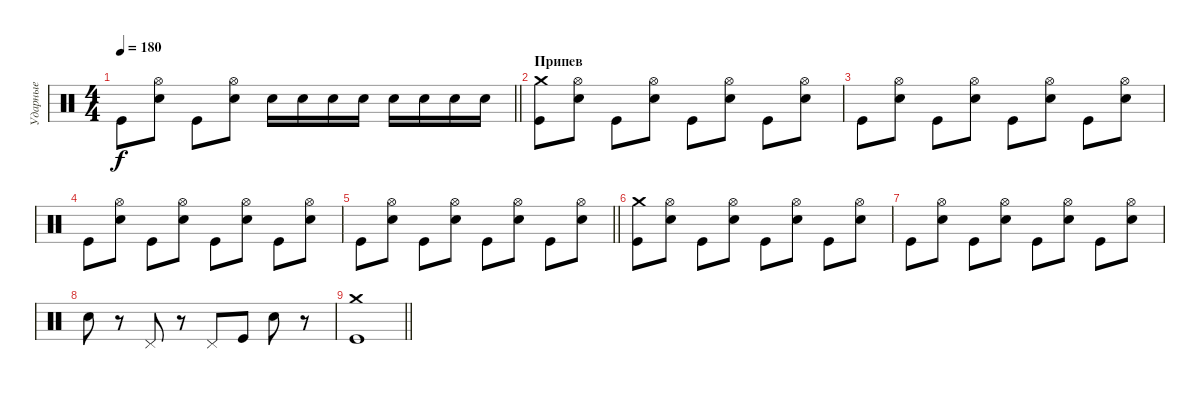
\track ("Ударные" "Ударные") {instrument percussion}
\staff {score}
\articulation defaults
\ts (4 4)
\tempo 180
\clef neutral
\barLineRight lightlight
\ks c "Kick (hit)".8{dy f}
("Hi-Hat (open)" "Electric Snare (hit)").8 "Kick (hit)".8 ("Hi-Hat (open)" "Electric Snare (hit)").8 "Electric Snare (hit)".16 "Electric Snare (hit)".16 "Electric Snare (hit)".16 "Electric Snare (hit)".16 "Electric Snare (hit)".16 "Electric Snare (hit)".16 "Electric Snare (hit)".16 "Electric Snare (hit)".16 |
\section ("" "Припев")
("Crash medium (hit)" "Kick (hit)").8 ("Hi-Hat (open)" "Electric Snare (hit)").8 "Kick (hit)".8 ("Hi-Hat (open)" "Electric Snare (hit)").8 "Kick (hit)".8 ("Hi-Hat (open)" "Electric Snare (hit)").8 "Kick (hit)".8 ("Hi-Hat (open)" "Electric Snare (hit)").8 |
"Kick (hit)".8 ("Hi-Hat (open)" "Electric Snare (hit)").8 "Kick (hit)".8 ("Hi-Hat (open)" "Electric Snare (hit)").8 "Kick (hit)".8 ("Hi-Hat (open)" "Electric Snare (hit)").8 "Kick (hit)".8 ("Hi-Hat (open)" "Electric Snare (hit)").8 |
"Kick (hit)".8 ("Hi-Hat (open)" "Electric Snare (hit)").8 "Kick (hit)".8 ("Hi-Hat (open)" "Electric Snare (hit)").8 "Kick (hit)".8 ("Hi-Hat (open)" "Electric Snare (hit)").8 "Kick (hit)".8 ("Hi-Hat (open)" "Electric Snare (hit)").8 |
\barLineRight lightlight "Kick (hit)".8
("Hi-Hat (open)" "Electric Snare (hit)").8 "Kick (hit)".8 ("Hi-Hat (open)" "Electric Snare (hit)").8 "Kick (hit)".8 ("Hi-Hat (open)" "Electric Snare (hit)").8 "Kick (hit)".8 ("Hi-Hat (open)" "Electric Snare (hit)").8 |
("Crash medium (hit)" "Kick (hit)").8 ("Hi-Hat (open)" "Electric Snare (hit)").8 "Kick (hit)".8 ("Hi-Hat (open)" "Electric Snare (hit)").8 "Kick (hit)".8 ("Hi-Hat (open)" "Electric Snare (hit)").8 "Kick (hit)".8 ("Hi-Hat (open)" "Electric Snare (hit)").8 |
"Kick (hit)".8 ("Hi-Hat (open)" "Electric Snare (hit)").8 "Kick (hit)".8 ("Hi-Hat (open)" "Electric Snare (hit)").8 "Kick (hit)".8 ("Hi-Hat (open)" "Electric Snare (hit)").8 "Kick (hit)".8 ("Hi-Hat (open)" "Electric Snare (hit)").8 |
"Electric Snare (hit)".8 r.8 "Pedal Hi-Hat (hit)".8 r.8 "Pedal Hi-Hat (hit)".8 "Kick (hit)".8 "Electric Snare (hit)".8 r.8 |
\barLineRight lightlight
("Crash medium (hit)" "Kick (hit)").1
